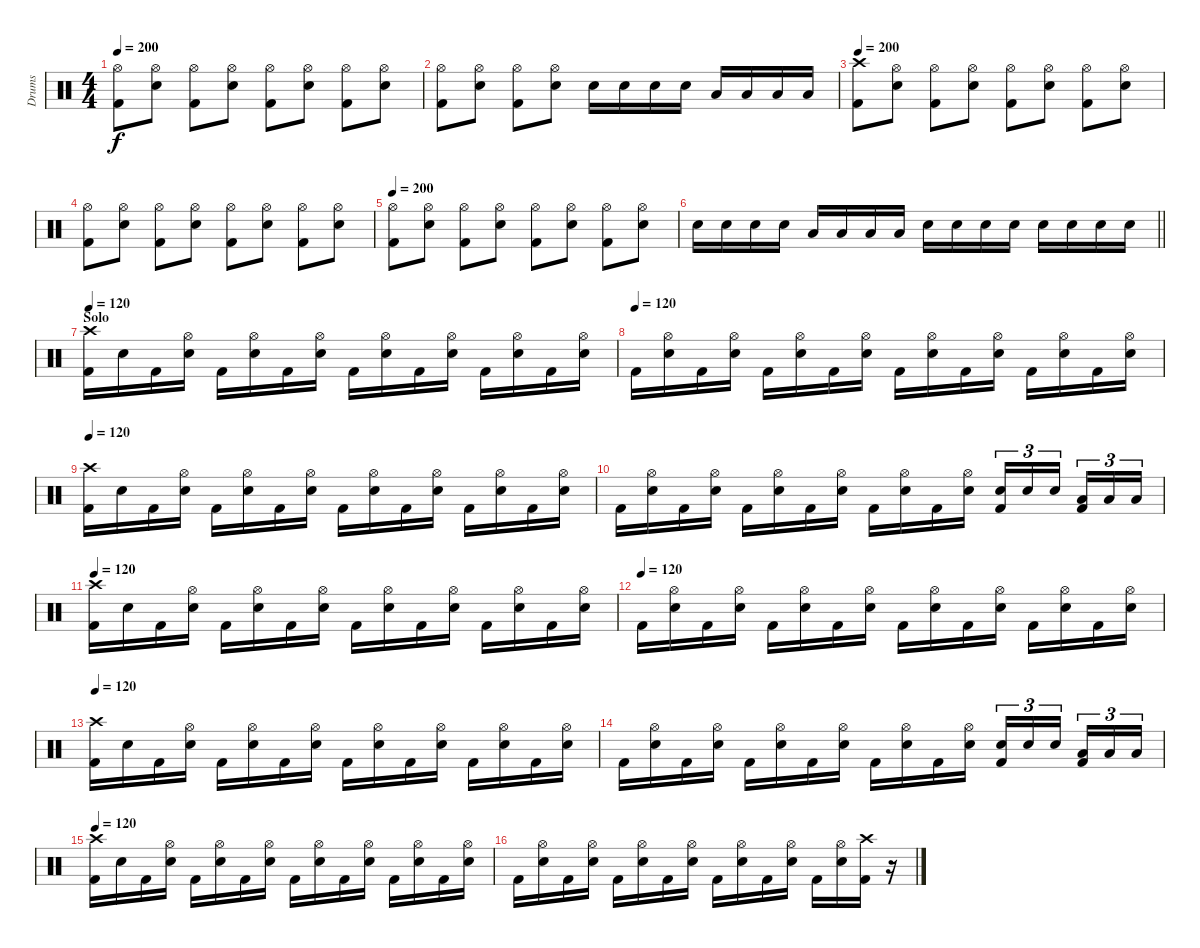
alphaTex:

\track ("Drums" "Drums") {instrument percussion}
\staff {score}
\articulation defaults
\ts (4 4)
\tempo 190
\tempo 200
\clef neutral
\ks c
("Hi-Hat (open)" "Kick (hit) 2").8{dy f} ("Hi-Hat (open)" "Electric Snare (hit)").8 ("Hi-Hat (open)" "Kick (hit) 2").8 ("Hi-Hat (open)" "Electric Snare (hit)").8 ("Hi-Hat (open)" "Kick (hit) 2").8 ("Hi-Hat (open)" "Electric Snare (hit)").8 ("Hi-Hat (open)" "Kick (hit) 2").8 ("Hi-Hat (open)" "Electric Snare (hit)").8 |
("Hi-Hat (open)" "Kick (hit) 2").8 ("Hi-Hat (open)" "Electric Snare (hit)").8 ("Hi-Hat (open)" "Kick (hit) 2").8 ("Hi-Hat (open)" "Electric Snare (hit)").8 "Electric Snare (hit)".16 "Electric Snare (hit)".16 "Electric Snare (hit)".16 "Electric Snare (hit)".16 "Low Tom (hit)".16 "Low Tom (hit)".16 "Low Tom (hit)".16 "Low Tom (hit)".16 |
\tempo 200
("Crash high (hit)" "Kick (hit) 2").8 ("Hi-Hat (open)" "Electric Snare (hit)").8 ("Hi-Hat (open)" "Kick (hit) 2").8 ("Hi-Hat (open)" "Electric Snare (hit)").8 ("Hi-Hat (open)" "Kick (hit) 2").8 ("Hi-Hat (open)" "Electric Snare (hit)").8 ("Hi-Hat (open)" "Kick (hit) 2").8 ("Hi-Hat (open)" "Electric Snare (hit)").8 |
("Hi-Hat (open)" "Kick (hit) 2").8 ("Hi-Hat (open)" "Electric Snare (hit)").8 ("Hi-Hat (open)" "Kick (hit) 2").8 ("Hi-Hat (open)" "Electric Snare (hit)").8 ("Hi-Hat (open)" "Kick (hit) 2").8 ("Hi-Hat (open)" "Electric Snare (hit)").8 ("Hi-Hat (open)" "Kick (hit) 2").8 ("Hi-Hat (open)" "Electric Snare (hit)").8 |
\tempo 190
\tempo 200
("Hi-Hat (open)" "Kick (hit) 2").8 ("Hi-Hat (open)" "Electric Snare (hit)").8 ("Hi-Hat (open)" "Kick (hit) 2").8 ("Hi-Hat (open)" "Electric Snare (hit)").8 ("Hi-Hat (open)" "Kick (hit) 2").8 ("Hi-Hat (open)" "Electric Snare (hit)").8 ("Hi-Hat (open)" "Kick (hit) 2").8 ("Hi-Hat (open)" "Electric Snare (hit)").8 |
\barLineRight lightlight "Electric Snare (hit)".16 "Electric Snare (hit)".16 "Electric Snare (hit)".16 "Electric Snare (hit)".16 "Low Tom (hit)".16 "Low Tom (hit)".16 "Low Tom (hit)".16 "Low Tom (hit)".16 "Electric Snare (hit)".16 "Electric Snare (hit)".16 "Electric Snare (hit)".16 "Electric Snare (hit)".16 "Electric Snare (hit)".16 "Electric Snare (hit)".16 "Electric Snare (hit)".16 "Electric Snare (hit)".16
|
\section ("" "Solo")
\tempo 120
("Crash high (hit)" "Kick (hit) 2").16 "Electric Snare (hit)".16 "Kick (hit) 2".16 ("Hi-Hat (open)" "Electric Snare (hit)").16 "Kick (hit) 2".16 ("Hi-Hat (open)" "Electric Snare (hit)").16 "Kick (hit) 2".16 ("Hi-Hat (open)" "Electric Snare (hit)").16 "Kick (hit) 2".16 ("Hi-Hat (open)" "Electric Snare (hit)").16 "Kick (hit) 2".16 ("Hi-Hat (open)" "Electric Snare (hit)").16 "Kick (hit) 2".16 ("Hi-Hat (open)" "Electric Snare (hit)").16 "Kick (hit) 2".16 ("Hi-Hat (open)" "Electric Snare (hit)").16 |
\tempo (120)
"Kick (hit) 2".16 ("Hi-Hat (open)" "Electric Snare (hit)").16 "Kick (hit) 2".16 ("Hi-Hat (open)" "Electric Snare (hit)").16 "Kick (hit) 2".16 ("Hi-Hat (open)" "Electric Snare (hit)").16 "Kick (hit) 2".16 ("Hi-Hat (open)" "Electric Snare (hit)").16 "Kick (hit) 2".16 ("Hi-Hat (open)" "Electric Snare (hit)").16 "Kick (hit) 2".16 ("Hi-Hat (open)" "Electric Snare (hit)").16 "Kick (hit) 2".16 ("Hi-Hat (open)" "Electric Snare (hit)").16 "Kick (hit) 2".16 ("Hi-Hat (open)" "Electric Snare (hit)").16 |
\tempo 120
("Crash high (hit)" "Kick (hit) 2").16 "Electric Snare (hit)".16 "Kick (hit) 2".16 ("Hi-Hat (open)" "Electric Snare (hit)").16 "Kick (hit) 2".16 ("Hi-Hat (open)" "Electric Snare (hit)").16 "Kick (hit) 2".16 ("Hi-Hat (open)" "Electric Snare (hit)").16 "Kick (hit) 2".16 ("Hi-Hat (open)" "Electric Snare (hit)").16 "Kick (hit) 2".16 ("Hi-Hat (open)" "Electric Snare (hit)").16 "Kick (hit) 2".16 ("Hi-Hat (open)" "Electric Snare (hit)").16 "Kick (hit) 2".16 ("Hi-Hat (open)" "Electric Snare (hit)").16 |
"Kick (hit) 2".16 ("Hi-Hat (open)" "Electric Snare (hit)").16 "Kick (hit) 2".16 ("Hi-Hat (open)" "Electric Snare (hit)").16 "Kick (hit) 2".16 ("Hi-Hat (open)" "Electric Snare (hit)").16 "Kick (hit) 2".16 ("Hi-Hat (open)" "Electric Snare (hit)").16 "Kick (hit) 2".16 ("Hi-Hat (open)" "Electric Snare (hit)").16 "Kick (hit) 2".16 ("Hi-Hat (open)" "Electric Snare (hit)").16 ("Electric Snare (hit)" "Kick (hit) 2").16{tu (3 2)} "Electric Snare (hit)".16{tu (3 2)} "Electric Snare (hit)".16{tu (3 2) beam splitsecondary} ("Low Tom (hit)" "Kick (hit) 2").16{tu (3 2)} "Low Tom (hit)".16{tu (3 2)} "Low Tom (hit)".16{tu (3 2)} |
\tempo 120
("Crash high (hit)" "Kick (hit) 2").16 "Electric Snare (hit)".16 "Kick (hit) 2".16 ("Hi-Hat (open)" "Electric Snare (hit)").16 "Kick (hit) 2".16 ("Hi-Hat (open)" "Electric Snare (hit)").16 "Kick (hit) 2".16 ("Hi-Hat (open)" "Electric Snare (hit)").16 "Kick (hit) 2".16 ("Hi-Hat (open)" "Electric Snare (hit)").16 "Kick (hit) 2".16 ("Hi-Hat (open)" "Electric Snare (hit)").16 "Kick (hit) 2".16 ("Hi-Hat (open)" "Electric Snare (hit)").16 "Kick (hit) 2".16 ("Hi-Hat (open)" "Electric Snare (hit)").16 |
\tempo (120)
"Kick (hit) 2".16 ("Hi-Hat (open)" "Electric Snare (hit)").16 "Kick (hit) 2".16 ("Hi-Hat (open)" "Electric Snare (hit)").16 "Kick (hit) 2".16 ("Hi-Hat (open)" "Electric Snare (hit)").16 "Kick (hit) 2".16 ("Hi-Hat (open)" "Electric Snare (hit)").16 "Kick (hit) 2".16 ("Hi-Hat (open)" "Electric Snare (hit)").16 "Kick (hit) 2".16 ("Hi-Hat (open)" "Electric Snare (hit)").16 "Kick (hit) 2".16 ("Hi-Hat (open)" "Electric Snare (hit)").16 "Kick (hit) 2".16 ("Hi-Hat (open)" "Electric Snare (hit)").16 |
\tempo 120
("Crash high (hit)" "Kick (hit) 2").16 "Electric Snare (hit)".16 "Kick (hit) 2".16 ("Hi-Hat (open)" "Electric Snare (hit)").16 "Kick (hit) 2".16 ("Hi-Hat (open)" "Electric Snare (hit)").16 "Kick (hit) 2".16 ("Hi-Hat (open)" "Electric Snare (hit)").16 "Kick (hit) 2".16 ("Hi-Hat (open)" "Electric Snare (hit)").16 "Kick (hit) 2".16 ("Hi-Hat (open)" "Electric Snare (hit)").16 "Kick (hit) 2".16 ("Hi-Hat (open)" "Electric Snare (hit)").16 "Kick (hit) 2".16 ("Hi-Hat (open)" "Electric Snare (hit)").16 |
"Kick (hit) 2".16 ("Hi-Hat (open)" "Electric Snare (hit)").16 "Kick (hit) 2".16 ("Hi-Hat (open)" "Electric Snare (hit)").16 "Kick (hit) 2".16 ("Hi-Hat (open)" "Electric Snare (hit)").16 "Kick (hit) 2".16 ("Hi-Hat (open)" "Electric Snare (hit)").16 "Kick (hit) 2".16 ("Hi-Hat (open)" "Electric Snare (hit)").16 "Kick (hit) 2".16 ("Hi-Hat (open)" "Electric Snare (hit)").16 ("Electric Snare (hit)" "Kick (hit) 2").16{tu (3 2)} "Electric Snare (hit)".16{tu (3 2)} "Electric Snare (hit)".16{tu (3 2) beam splitsecondary} ("Low Tom (hit)" "Kick (hit) 2").16{tu (3 2)} "Low Tom (hit)".16{tu (3 2)} "Low Tom (hit)".16{tu (3 2)} |
\tempo 120
("Crash high (hit)" "Kick (hit) 2").16 "Electric Snare (hit)".16 "Kick (hit) 2".16 ("Hi-Hat (open)" "Electric Snare (hit)").16 "Kick (hit) 2".16 ("Hi-Hat (open)" "Electric Snare (hit)").16 "Kick (hit) 2".16 ("Hi-Hat (open)" "Electric Snare (hit)").16 "Kick (hit) 2".16 ("Hi-Hat (open)" "Electric Snare (hit)").16 "Kick (hit) 2".16 ("Hi-Hat (open)" "Electric Snare (hit)").16 "Kick (hit) 2".16 ("Hi-Hat (open)" "Electric Snare (hit)").16 "Kick (hit) 2".16 ("Hi-Hat (open)" "Electric Snare (hit)").16 |
"Kick (hit) 2".16 ("Hi-Hat (open)" "Electric Snare (hit)").16 "Kick (hit) 2".16 ("Hi-Hat (open)" "Electric Snare (hit)").16 "Kick (hit) 2".16 ("Hi-Hat (open)" "Electric Snare (hit)").16 "Kick (hit) 2".16 ("Hi-Hat (open)" "Electric Snare (hit)").16 "Kick (hit) 2".16 ("Hi-Hat (open)" "Electric Snare (hit)").16 "Kick (hit) 2".16 ("Hi-Hat (open)" "Electric Snare (hit)").16 "Kick (hit) 2".16 ("Hi-Hat (open)" "Electric Snare (hit)").16 ("Crash high (hit)" "Kick (hit) 2").16 r.16
